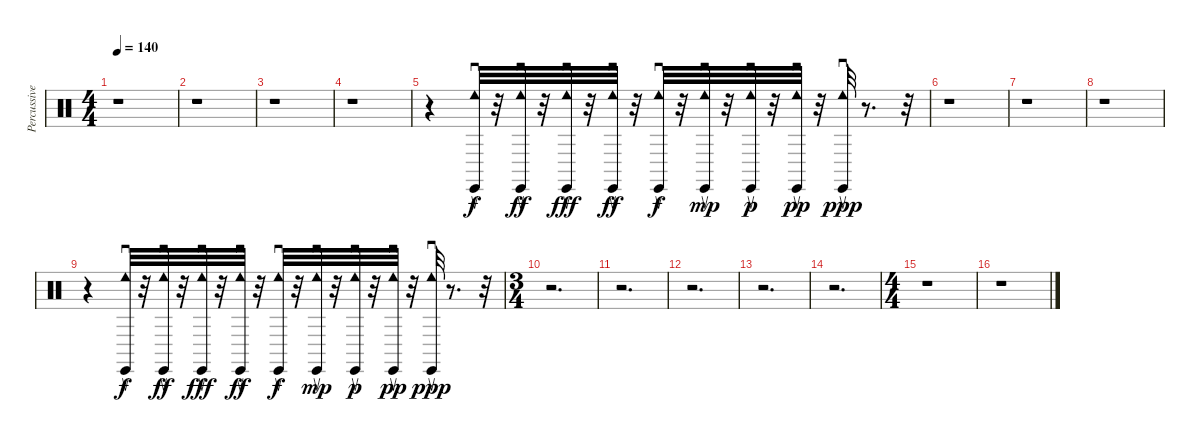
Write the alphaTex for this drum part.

\track ("Percussive Organ" "Percussive") {instrument percussion}
\staff {score}
\articulation defaults
\ts (4 4)
\tempo 140
\clef neutral
\ks c
r.1{dy ppp} |
r.1 |
r.1 |
r.1 |
r.4 ("Tambourine (roll)" "Cabasa (return)").32{dy f} r.32 ("Tambourine (roll)" "Cabasa (return)").32{dy ff} r.32 ("Tambourine (roll)" "Cabasa (return)").32{dy fff} r.32 ("Tambourine (roll)" "Cabasa (return)").32{dy ff} r.32 ("Tambourine (roll)" "Cabasa (return)").32{dy f} r.32 ("Tambourine (roll)" "Cabasa (return)").32{dy mp} r.32 ("Tambourine (roll)" "Cabasa (return)").32{dy p} r.32 ("Tambourine (roll)" "Cabasa (return)").32{dy pp} r.32 ("Cabasa (return)" "Tambourine (roll)").32{dy ppp} r.8{d} r.32 |
r.1 |
r.1 |
r.1 |
r.4 ("Cabasa (return)" "Tambourine (roll)").32{dy f} r.32 ("Tambourine (roll)" "Cabasa (return)").32{dy ff} r.32 ("Tambourine (roll)" "Cabasa (return)").32{dy fff} r.32 ("Tambourine (roll)" "Cabasa (return)").32{dy ff} r.32 ("Tambourine (roll)" "Cabasa (return)").32{dy f} r.32 ("Tambourine (roll)" "Cabasa (return)").32{dy mp} r.32 ("Tambourine (roll)" "Cabasa (return)").32{dy p} r.32 ("Tambourine (roll)" "Cabasa (return)").32{dy pp} r.32 ("Cabasa (return)" "Tambourine (roll)").32{dy ppp} r.8{d} r.32 |
\ts (3 4)
r.2{d} |
r.2{d} |
r.2{d} |
r.2{d} |
r.2{d} |
\ts (4 4)
r.1 |
r.1
